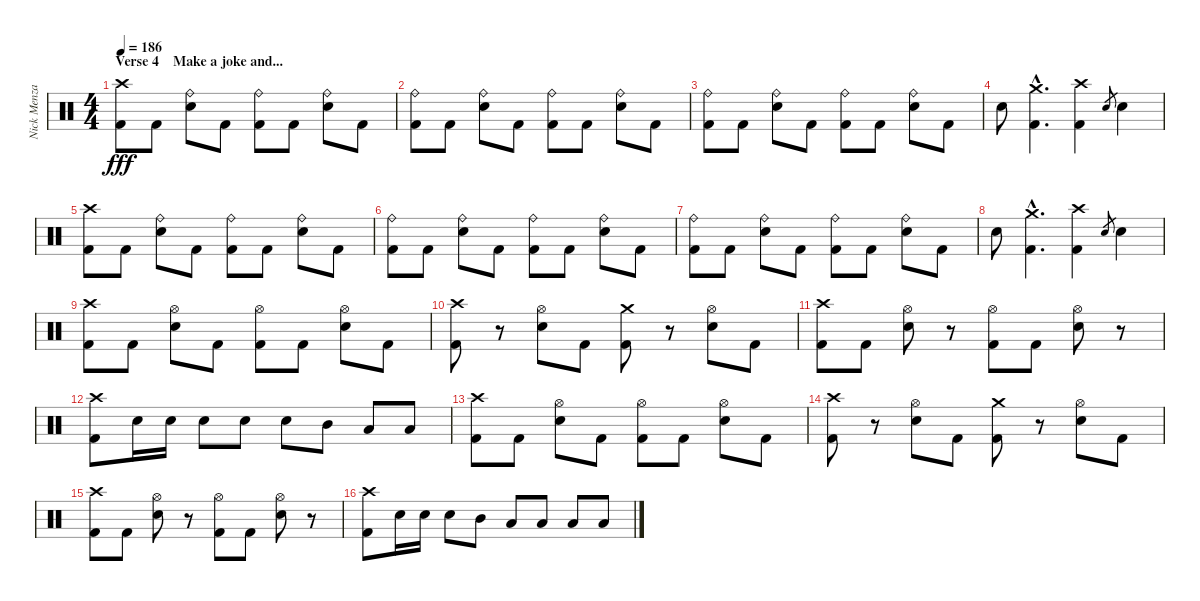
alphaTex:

\track ("Nick Menza [Drums]" "Nick Menza") {instrument percussion}
\staff {score}
\articulation defaults
\ts (4 4)
\section ("" "Verse 4    Make a joke and...")
\tempo 186
\clef neutral
\ks c
("Kick (hit) 2" "Crash high (hit)").8{dy fff} "Kick (hit) 2".8 ("Snare (hit) 2" "Ride (bell)").8 "Kick (hit) 2".8 ("Kick (hit) 2" "Ride (bell)").8 "Kick (hit) 2".8 ("Snare (hit) 2" "Ride (bell)").8 "Kick (hit) 2".8 |
("Kick (hit) 2" "Ride (bell)").8 "Kick (hit) 2".8 ("Snare (hit) 2" "Ride (bell)").8 "Kick (hit) 2".8 ("Kick (hit) 2" "Ride (bell)").8 "Kick (hit) 2".8 ("Snare (hit) 2" "Ride (bell)").8 "Kick (hit) 2".8 |
("Kick (hit) 2" "Ride (bell)").8 "Kick (hit) 2".8 ("Snare (hit) 2" "Ride (bell)").8 "Kick (hit) 2".8 ("Kick (hit) 2" "Ride (bell)").8 "Kick (hit) 2".8 ("Snare (hit) 2" "Ride (bell)").8 "Kick (hit) 2".8 |
"Snare (hit) 2".8 ("Kick (hit) 2"{hac} "Crash medium (hit)"{hac}).4{d} ("Kick (hit) 2" "Crash high (hit)").4 "Snare (hit) 2".8{gr} "Snare (hit) 2".4 |
("Kick (hit) 2" "Crash high (hit)").8 "Kick (hit) 2".8 ("Snare (hit) 2" "Ride (bell)").8 "Kick (hit) 2".8 ("Kick (hit) 2" "Ride (bell)").8 "Kick (hit) 2".8 ("Snare (hit) 2" "Ride (bell)").8 "Kick (hit) 2".8 |
("Kick (hit) 2" "Ride (bell)").8 "Kick (hit) 2".8 ("Snare (hit) 2" "Ride (bell)").8 "Kick (hit) 2".8 ("Kick (hit) 2" "Ride (bell)").8 "Kick (hit) 2".8 ("Snare (hit) 2" "Ride (bell)").8 "Kick (hit) 2".8 |
("Kick (hit) 2" "Ride (bell)").8 "Kick (hit) 2".8 ("Snare (hit) 2" "Ride (bell)").8 "Kick (hit) 2".8 ("Kick (hit) 2" "Ride (bell)").8 "Kick (hit) 2".8 ("Snare (hit) 2" "Ride (bell)").8 "Kick (hit) 2".8 |
"Snare (hit) 2".8 ("Kick (hit) 2"{hac} "Crash medium (hit)"{hac}).4{d} ("Kick (hit) 2" "Crash high (hit)").4 "Snare (hit) 2".8{gr} "Snare (hit) 2".4 |
("Kick (hit) 2" "Crash high (hit)").8 "Kick (hit) 2".8 ("Snare (hit) 2" "Hi-Hat (open)").8 "Kick (hit) 2".8 ("Kick (hit) 2" "Hi-Hat (open)").8 "Kick (hit) 2".8 ("Snare (hit) 2" "Hi-Hat (open)").8 "Kick (hit) 2".8 |
("Kick (hit) 2" "Crash high (hit)").8 r.8 ("Snare (hit) 2" "Hi-Hat (open)").8 "Kick (hit) 2".8 ("Kick (hit) 2" "Crash medium (hit)").8 r.8 ("Snare (hit) 2" "Hi-Hat (open)").8 "Kick (hit) 2".8 |
("Kick (hit) 2" "Crash high (hit)").8 "Kick (hit) 2".8 ("Snare (hit) 2" "Hi-Hat (open)").8 r.8 ("Kick (hit) 2" "Hi-Hat (open)").8 "Kick (hit) 2".8 ("Snare (hit) 2" "Hi-Hat (open)").8 r.8 |
("Kick (hit) 2" "Crash high (hit)").8 "Snare (hit) 2".16 "Snare (hit) 2".16 "Snare (hit) 2".8 "Snare (hit) 2".8 "Snare (hit) 2".8 "Mid Tom (hit)".8 "Low Tom (hit)".8 "Low Tom (hit)".8 |
("Kick (hit) 2" "Crash high (hit)").8 "Kick (hit) 2".8 ("Snare (hit) 2" "Hi-Hat (open)").8 "Kick (hit) 2".8 ("Kick (hit) 2" "Hi-Hat (open)").8 "Kick (hit) 2".8 ("Snare (hit) 2" "Hi-Hat (open)").8 "Kick (hit) 2".8 |
("Kick (hit) 2" "Crash high (hit)").8 r.8 ("Snare (hit) 2" "Hi-Hat (open)").8 "Kick (hit) 2".8 ("Kick (hit) 2" "Crash medium (hit)").8 r.8 ("Snare (hit) 2" "Hi-Hat (open)").8 "Kick (hit) 2".8 |
("Kick (hit) 2" "Crash high (hit)").8 "Kick (hit) 2".8 ("Snare (hit) 2" "Hi-Hat (open)").8 r.8 ("Kick (hit) 2" "Hi-Hat (open)").8 "Kick (hit) 2".8 ("Snare (hit) 2" "Hi-Hat (open)").8 r.8 |
("Kick (hit) 2" "Crash high (hit)").8 "Snare (hit) 2".16 "Snare (hit) 2".16 "Snare (hit) 2".8 "Mid Tom (hit)".8 "Low Tom (hit)".8 "Low Tom (hit)".8 "Low Tom (hit)".8 "Low Tom (hit)".8
